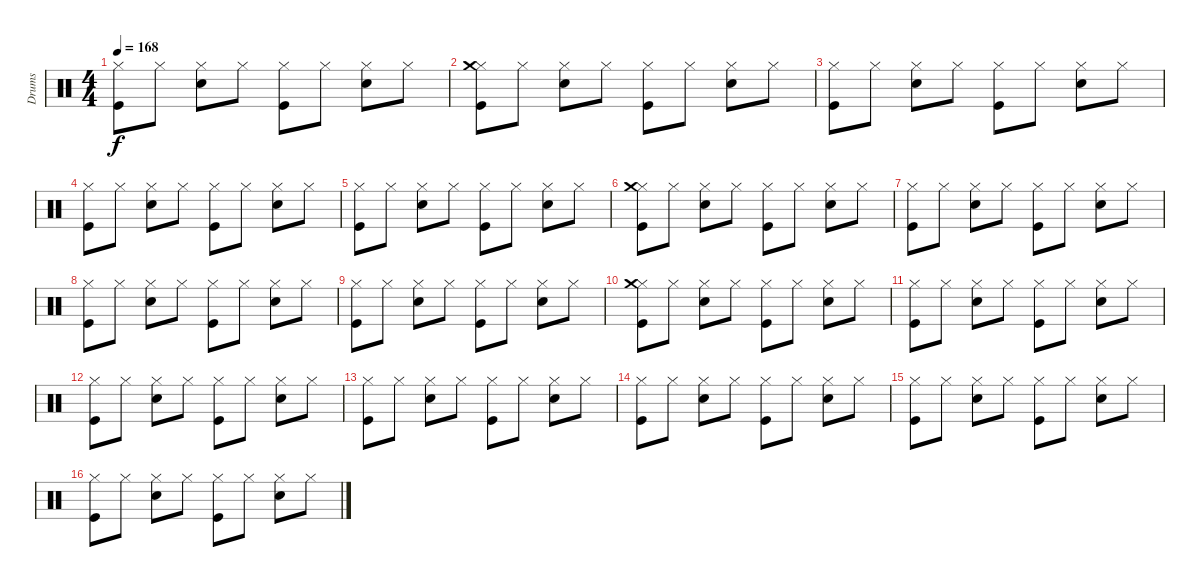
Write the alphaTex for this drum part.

\track ("Drums" "Drums") {instrument percussion}
\staff {score}
\articulation defaults
\ts (4 4)
\tempo 168
\clef neutral
\ks c
("Kick (hit)" "Hi-Hat (closed)").8{dy f} "Hi-Hat (closed)".8 ("Snare (hit) 2" "Hi-Hat (closed)").8 "Hi-Hat (closed)".8 ("Kick (hit)" "Hi-Hat (closed)").8 "Hi-Hat (closed)".8 ("Snare (hit) 2" "Hi-Hat (closed)").8 "Hi-Hat (closed)".8 |
("Kick (hit)" "Hi-Hat (closed)" "Crash medium (hit)").8 "Hi-Hat (closed)".8 ("Snare (hit) 2" "Hi-Hat (closed)").8 "Hi-Hat (closed)".8 ("Kick (hit)" "Hi-Hat (closed)").8 "Hi-Hat (closed)".8 ("Snare (hit) 2" "Hi-Hat (closed)").8 "Hi-Hat (closed)".8 |
("Kick (hit)" "Hi-Hat (closed)").8 "Hi-Hat (closed)".8 ("Snare (hit) 2" "Hi-Hat (closed)").8 "Hi-Hat (closed)".8 ("Kick (hit)" "Hi-Hat (closed)").8 "Hi-Hat (closed)".8 ("Snare (hit) 2" "Hi-Hat (closed)").8 "Hi-Hat (closed)".8 |
("Kick (hit)" "Hi-Hat (closed)").8 "Hi-Hat (closed)".8 ("Snare (hit) 2" "Hi-Hat (closed)").8 "Hi-Hat (closed)".8 ("Kick (hit)" "Hi-Hat (closed)").8 "Hi-Hat (closed)".8 ("Snare (hit) 2" "Hi-Hat (closed)").8 "Hi-Hat (closed)".8 |
("Kick (hit)" "Hi-Hat (closed)").8 "Hi-Hat (closed)".8 ("Snare (hit) 2" "Hi-Hat (closed)").8 "Hi-Hat (closed)".8 ("Kick (hit)" "Hi-Hat (closed)").8 "Hi-Hat (closed)".8 ("Snare (hit) 2" "Hi-Hat (closed)").8 "Hi-Hat (closed)".8 |
("Kick (hit)" "Hi-Hat (closed)" "Crash medium (hit)").8 "Hi-Hat (closed)".8 ("Snare (hit) 2" "Hi-Hat (closed)").8 "Hi-Hat (closed)".8 ("Kick (hit)" "Hi-Hat (closed)").8 "Hi-Hat (closed)".8 ("Snare (hit) 2" "Hi-Hat (closed)").8 "Hi-Hat (closed)".8 |
("Kick (hit)" "Hi-Hat (closed)").8 "Hi-Hat (closed)".8 ("Snare (hit) 2" "Hi-Hat (closed)").8 "Hi-Hat (closed)".8 ("Kick (hit)" "Hi-Hat (closed)").8 "Hi-Hat (closed)".8 ("Snare (hit) 2" "Hi-Hat (closed)").8 "Hi-Hat (closed)".8 |
("Kick (hit)" "Hi-Hat (closed)").8 "Hi-Hat (closed)".8 ("Snare (hit) 2" "Hi-Hat (closed)").8 "Hi-Hat (closed)".8 ("Kick (hit)" "Hi-Hat (closed)").8 "Hi-Hat (closed)".8 ("Snare (hit) 2" "Hi-Hat (closed)").8 "Hi-Hat (closed)".8 |
("Kick (hit)" "Hi-Hat (closed)").8 "Hi-Hat (closed)".8 ("Snare (hit) 2" "Hi-Hat (closed)").8 "Hi-Hat (closed)".8 ("Kick (hit)" "Hi-Hat (closed)").8 "Hi-Hat (closed)".8 ("Snare (hit) 2" "Hi-Hat (closed)").8 "Hi-Hat (closed)".8 |
("Kick (hit)" "Hi-Hat (closed)" "Crash medium (hit)").8 "Hi-Hat (closed)".8 ("Snare (hit) 2" "Hi-Hat (closed)").8 "Hi-Hat (closed)".8 ("Kick (hit)" "Hi-Hat (closed)").8 "Hi-Hat (closed)".8 ("Snare (hit) 2" "Hi-Hat (closed)").8 "Hi-Hat (closed)".8 |
("Kick (hit)" "Hi-Hat (closed)").8 "Hi-Hat (closed)".8 ("Snare (hit) 2" "Hi-Hat (closed)").8 "Hi-Hat (closed)".8 ("Kick (hit)" "Hi-Hat (closed)").8 "Hi-Hat (closed)".8 ("Snare (hit) 2" "Hi-Hat (closed)").8 "Hi-Hat (closed)".8 |
("Kick (hit)" "Hi-Hat (closed)").8 "Hi-Hat (closed)".8 ("Snare (hit) 2" "Hi-Hat (closed)").8 "Hi-Hat (closed)".8 ("Kick (hit)" "Hi-Hat (closed)").8 "Hi-Hat (closed)".8 ("Snare (hit) 2" "Hi-Hat (closed)").8 "Hi-Hat (closed)".8 |
("Kick (hit)" "Hi-Hat (closed)").8 "Hi-Hat (closed)".8 ("Snare (hit) 2" "Hi-Hat (closed)").8 "Hi-Hat (closed)".8 ("Kick (hit)" "Hi-Hat (closed)").8 "Hi-Hat (closed)".8 ("Snare (hit) 2" "Hi-Hat (closed)").8 "Hi-Hat (closed)".8 |
("Kick (hit)" "Hi-Hat (closed)").8 "Hi-Hat (closed)".8 ("Snare (hit) 2" "Hi-Hat (closed)").8 "Hi-Hat (closed)".8 ("Kick (hit)" "Hi-Hat (closed)").8 "Hi-Hat (closed)".8 ("Snare (hit) 2" "Hi-Hat (closed)").8 "Hi-Hat (closed)".8 |
("Kick (hit)" "Hi-Hat (closed)").8 "Hi-Hat (closed)".8 ("Snare (hit) 2" "Hi-Hat (closed)").8 "Hi-Hat (closed)".8 ("Kick (hit)" "Hi-Hat (closed)").8 "Hi-Hat (closed)".8 ("Snare (hit) 2" "Hi-Hat (closed)").8 "Hi-Hat (closed)".8 |
("Kick (hit)" "Hi-Hat (closed)").8 "Hi-Hat (closed)".8 ("Snare (hit) 2" "Hi-Hat (closed)").8 "Hi-Hat (closed)".8 ("Kick (hit)" "Hi-Hat (closed)").8 "Hi-Hat (closed)".8 ("Snare (hit) 2" "Hi-Hat (closed)").8 "Hi-Hat (closed)".8
